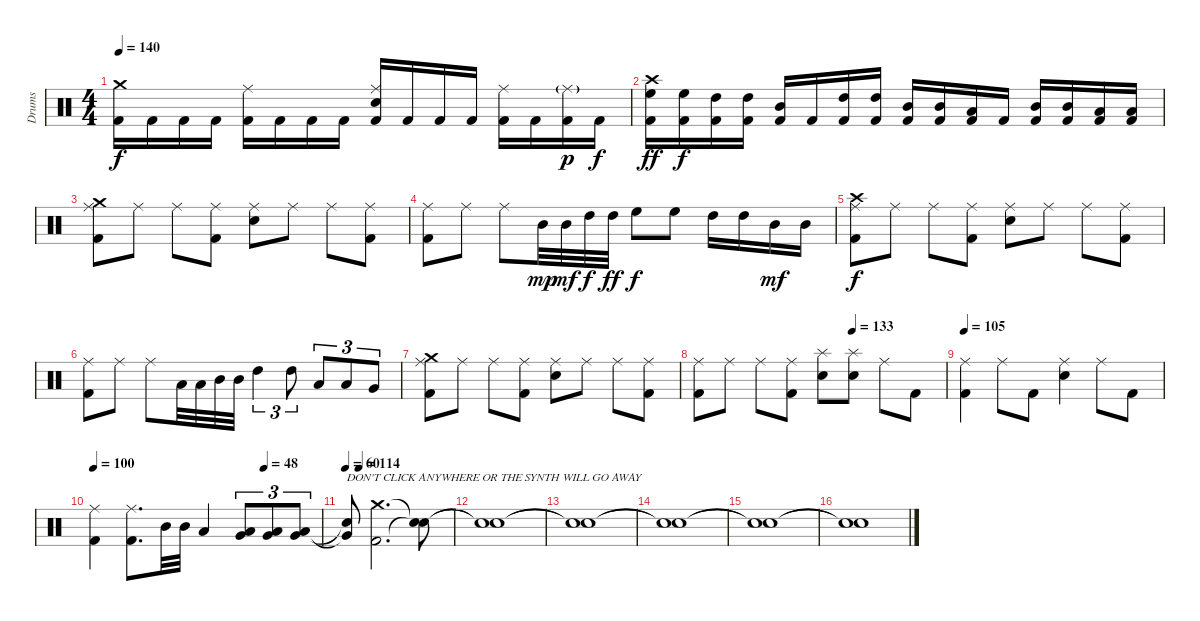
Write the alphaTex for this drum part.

\track ("Drums" "Drums") {instrument percussion}
\staff {score}
\articulation defaults
\ts (4 4)
\tempo 140
\clef neutral
\ks c
("Crash medium (hit)" "Kick (hit) 2").16{dy f} "Kick (hit) 2".16 "Kick (hit) 2".16 "Kick (hit) 2".16 ("Ride (middle)" "Kick (hit) 2").16 "Kick (hit) 2".16 "Kick (hit) 2".16 "Kick (hit) 2".16 ("Ride (middle)" "Electric Snare (hit)" "Kick (hit) 2").16 "Kick (hit) 2".16 "Kick (hit) 2".16 "Kick (hit) 2".16 ("Ride (middle)" "Kick (hit) 2").16 "Kick (hit) 2".16 ("Ride (middle)"{g} "Kick (hit) 2").16{dy p} "Kick (hit) 2".16{dy f} |
("Crash high (hit)" "High Floor Tom (hit)" "Kick (hit) 2").16{dy ff} ("High Floor Tom (hit)" "Kick (hit) 2").16{dy f} ("High Tom (hit)" "Kick (hit) 2").16 ("High Tom (hit)" "Kick (hit) 2").16 ("Mid Tom (hit)" "Kick (hit) 2").16 "Kick (hit) 2".16 ("High Tom (hit)" "Kick (hit) 2").16 ("High Tom (hit)" "Kick (hit) 2").16 ("Mid Tom (hit)" "Kick (hit) 2").16 ("Mid Tom (hit)" "Kick (hit) 2").16 ("Low Tom (hit)" "Kick (hit) 2").16 "Kick (hit) 2".16 ("Mid Tom (hit)" "Kick (hit) 2").16 ("Mid Tom (hit)" "Kick (hit) 2").16 ("Low Tom (hit)" "Kick (hit) 2").16 ("Low Tom (hit)" "Kick (hit) 2").16 |
("Crash medium (hit)" "Ride (middle)" "Kick (hit) 2").8 "Ride (middle)".8 "Ride (middle)".8 ("Ride (middle)" "Kick (hit) 2").8 ("Ride (middle)" "Electric Snare (hit)").8 "Ride (middle)".8 "Ride (middle)".8 ("Ride (middle)" "Kick (hit) 2").8 |
("Ride (middle)" "Kick (hit) 2").8 "Ride (middle)".8 "Ride (middle)".8 "Mid Tom (hit)".32{dy mp} "Mid Tom (hit)".32{dy mf} "High Tom (hit)".32{dy f} "High Tom (hit)".32{dy ff} "High Floor Tom (hit)".8{dy f} "High Floor Tom (hit)".8 "High Tom (hit)".16 "High Tom (hit)".16 "Mid Tom (hit)".16{dy mf} "Mid Tom (hit)".16 |
("Crash high (hit)" "Ride (middle)" "Kick (hit) 2").8{dy f} "Ride (middle)".8 "Ride (middle)".8 ("Ride (middle)" "Kick (hit) 2").8 ("Ride (middle)" "Electric Snare (hit)").8 "Ride (middle)".8 "Ride (middle)".8 ("Ride (middle)" "Kick (hit) 2").8 |
("Ride (middle)" "Kick (hit) 2").8 "Ride (middle)".8 "Ride (middle)".8 "Low Tom (hit)".32 "Low Tom (hit)".32 "Mid Tom (hit)".32 "Mid Tom (hit)".32 "High Tom (hit)".4{tu (3 2)} "High Tom (hit)".8{tu (3 2)} "Low Tom (hit)".8{tu (3 2)} "Low Tom (hit)".8{tu (3 2)} "Very Low Tom (hit)".8{tu (3 2)} |
("Crash medium (hit)" "Ride (middle)" "Kick (hit) 2").8 "Ride (middle)".8 "Ride (middle)".8 ("Ride (middle)" "Kick (hit) 2").8 ("Ride (middle)" "Electric Snare (hit)").8 "Ride (middle)".8 "Ride (middle)".8 ("Ride (middle)" "Kick (hit) 2").8 |
\tempo (133 0.625)
("Ride (middle)" "Kick (hit) 2").8 "Ride (middle)".8 "Ride (middle)".8 ("Ride (middle)" "Kick (hit) 2").8 ("Splash (hit)" "Electric Snare (hit)").8 ("Splash (hit)" "Electric Snare (hit)").8 "Ride (middle)".8 "Kick (hit) 2".8 |
\tempo 105
("Ride (middle)" "Kick (hit) 2").4 "Ride (middle)".8 "Kick (hit) 2".8 ("Ride (middle)" "Electric Snare (hit)").4 "Ride (middle)".8 "Kick (hit) 2".8 |
\tempo 100
\tempo (48 0.75)
("Ride (middle)" "Kick (hit) 2").4 ("Ride (middle)" "Kick (hit) 2").8{d} "Mid Tom (hit)".32 "Mid Tom (hit)".32 "Low Tom (hit)".4 ("Low Tom (hit)" "Very Low Tom (hit)").8{tu (3 2)} ("Low Tom (hit)" "Very Low Tom (hit)").8{tu (3 2)} ("Low Tom (hit)" "Very Low Tom (hit)").8{tu (3 2)} |
\tempo 60
\tempo (114 0.125)
("Very Low Tom (hit)"{t} "Snare (hit)"{t}).8{txt "DON'T CLICK ANYWHERE OR THE SYNTH WILL GO AWAY"} ("Crash medium (hit)" "Kick (hit) 2").2{d} ("Snare (hit)"{t} "Snare (hit)"{t}).8 |
("Snare (hit)"{t} "Snare (hit)"{t}).1 |
("Snare (hit)"{t} "Snare (hit)"{t}).1 |
("Snare (hit)"{t} "Snare (hit)"{t}).1 |
("Snare (hit)"{t} "Snare (hit)"{t}).1 |
("Snare (hit)"{t} "Snare (hit)"{t}).1
